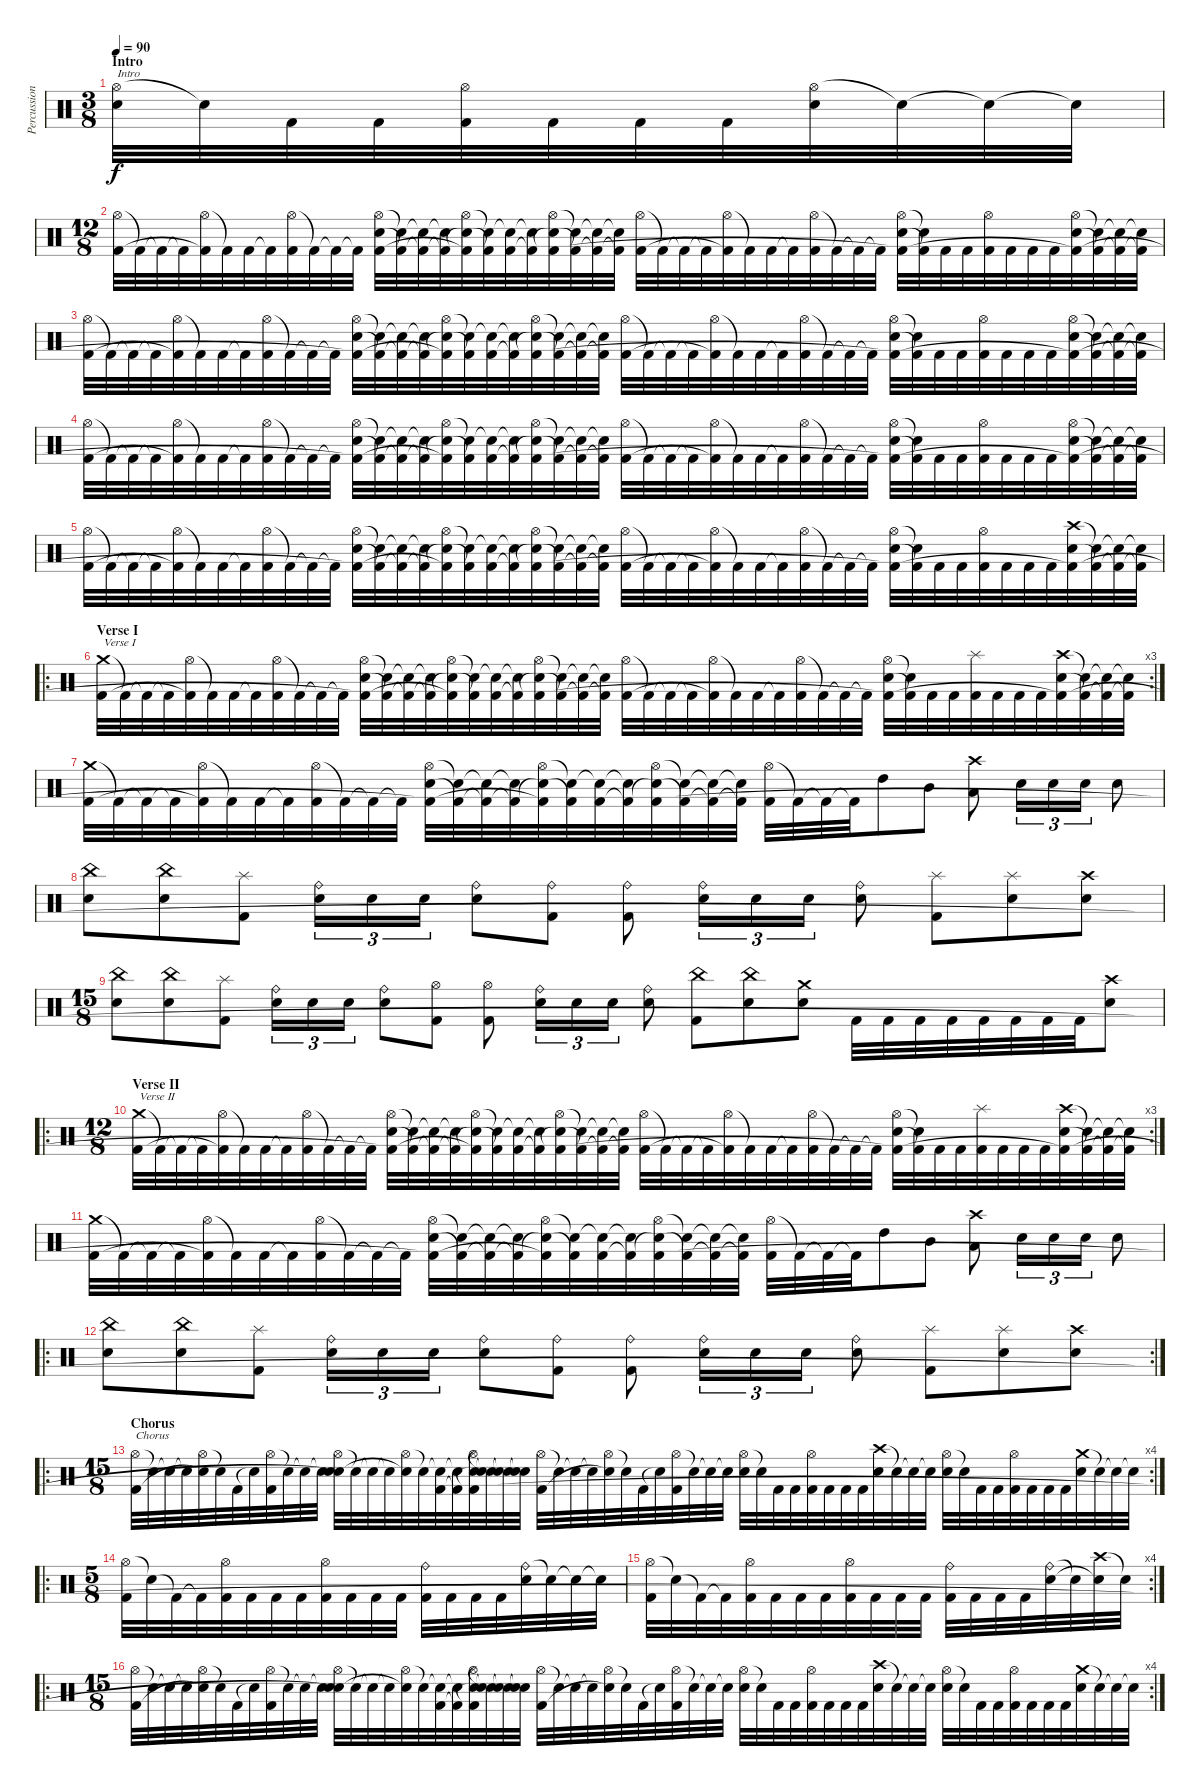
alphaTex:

\track ("Percussion [Patrick Robert]" "Percussion") {instrument percussion}
\staff {score}
\articulation defaults
\ts (3 8)
\section ("" "Intro")
\tempo 90
\clef neutral
\ks c
("Hi-Hat (open)" "Electric Snare (hit)").32{txt "Intro" dy f} "Snare (hit)"{t}.32 "Kick (hit) 2".32 "Kick (hit) 2".32 ("Hi-Hat (open)" "Kick (hit) 2").32 "Kick (hit) 2".32 "Kick (hit) 2".32 "Kick (hit) 2".32 ("Hi-Hat (open)" "Electric Snare (hit)").32 "Snare (hit)"{t}.32 "Snare (hit)"{t}.32 "Snare (hit)"{t}.32 |
\ts (12 8)
("Hi-Hat (open)" "Kick (hit) 2").32 "Kick (hit) 2"{t}.32 "Kick (hit) 2"{t}.32 "Kick (hit) 2"{t}.32 ("Hi-Hat (open)" "Kick (hit) 2"{t}).32 "Kick (hit) 2"{t}.32 "Kick (hit) 2".32 "Kick (hit) 2"{t}.32 ("Hi-Hat (open)" "Kick (hit) 2").32 "Kick (hit) 2"{t}.32 "Kick (hit) 2"{t}.32 "Kick (hit) 2"{t}.32 ("Hi-Hat (open)" "Electric Snare (hit)" "Kick (hit) 2").32 ("Snare (hit)"{t} "Kick (hit) 2"{t}).32 ("Snare (hit)"{t} "Kick (hit) 2"{t}).32 ("Snare (hit)"{t} "Kick (hit) 2"{t}).32 ("Hi-Hat (open)" "Snare (hit)"{t} "Kick (hit) 2"{t}).32 ("Snare (hit)"{t} "Kick (hit) 2"{t}).32 ("Snare (hit)"{t} "Kick (hit) 2").32 ("Snare (hit)"{t} "Kick (hit) 2"{t}).32 ("Hi-Hat (open)" "Snare (hit)"{t} "Kick (hit) 2").32 ("Snare (hit)"{t} "Kick (hit) 2"{t}).32 ("Snare (hit)"{t} "Kick (hit) 2"{t}).32 ("Snare (hit)"{t} "Kick (hit) 2"{t}).32 ("Hi-Hat (open)" "Kick (hit) 2").32 "Kick (hit) 2"{t}.32 "Kick (hit) 2"{t}.32 "Kick (hit) 2"{t}.32 ("Hi-Hat (open)" "Kick (hit) 2"{t}).32 "Kick (hit) 2"{t}.32 "Kick (hit) 2".32 "Kick (hit) 2"{t}.32 ("Hi-Hat (open)" "Kick (hit) 2").32 "Kick (hit) 2"{t}.32 "Kick (hit) 2"{t}.32 "Kick (hit) 2"{t}.32 ("Hi-Hat (open)" "Electric Snare (hit)" "Kick (hit) 2"{t}).32 ("Electric Snare (hit)"{t} "Kick (hit) 2"{t}).32 "Kick (hit) 2".32 "Kick (hit) 2".32 ("Hi-Hat (open)" "Kick (hit) 2").32 "Kick (hit) 2".32 "Kick (hit) 2".32 "Kick (hit) 2".32 ("Hi-Hat (open)" "Electric Snare (hit)" "Kick (hit) 2"{t}).32 ("Snare (hit)"{t} "Kick (hit) 2"{t}).32 ("Snare (hit)"{t} "Kick (hit) 2"{t}).32 ("Snare (hit)"{t} "Kick (hit) 2"{t}).32 |
("Hi-Hat (open)" "Kick (hit) 2").32 "Kick (hit) 2"{t}.32 "Kick (hit) 2"{t}.32 "Kick (hit) 2"{t}.32 ("Hi-Hat (open)" "Kick (hit) 2"{t}).32 "Kick (hit) 2"{t}.32 "Kick (hit) 2".32 "Kick (hit) 2"{t}.32 ("Hi-Hat (open)" "Kick (hit) 2").32 "Kick (hit) 2"{t}.32 "Kick (hit) 2"{t}.32 "Kick (hit) 2"{t}.32 ("Hi-Hat (open)" "Electric Snare (hit)" "Kick (hit) 2"{t}).32 ("Snare (hit)"{t} "Kick (hit) 2"{t}).32 ("Snare (hit)"{t} "Kick (hit) 2"{t}).32 ("Snare (hit)"{t} "Kick (hit) 2"{t}).32 ("Hi-Hat (open)" "Snare (hit)"{t} "Kick (hit) 2"{t}).32 ("Snare (hit)"{t} "Kick (hit) 2"{t}).32 ("Snare (hit)"{t} "Kick (hit) 2").32 ("Snare (hit)"{t} "Kick (hit) 2"{t}).32 ("Hi-Hat (open)" "Snare (hit)"{t} "Kick (hit) 2").32 ("Snare (hit)"{t} "Kick (hit) 2"{t}).32 ("Snare (hit)"{t} "Kick (hit) 2"{t}).32 ("Snare (hit)"{t} "Kick (hit) 2"{t}).32 ("Hi-Hat (open)" "Kick (hit) 2").32 "Kick (hit) 2"{t}.32 "Kick (hit) 2"{t}.32 "Kick (hit) 2"{t}.32 ("Hi-Hat (open)" "Kick (hit) 2"{t}).32 "Kick (hit) 2"{t}.32 "Kick (hit) 2".32 "Kick (hit) 2"{t}.32 ("Hi-Hat (open)" "Kick (hit) 2").32 "Kick (hit) 2"{t}.32 "Kick (hit) 2"{t}.32 "Kick (hit) 2"{t}.32 ("Hi-Hat (open)" "Electric Snare (hit)" "Kick (hit) 2"{t}).32 ("Electric Snare (hit)"{t} "Kick (hit) 2"{t}).32 "Kick (hit) 2".32 "Kick (hit) 2".32 ("Hi-Hat (open)" "Kick (hit) 2").32 "Kick (hit) 2".32 "Kick (hit) 2".32 "Kick (hit) 2".32 ("Hi-Hat (open)" "Electric Snare (hit)" "Kick (hit) 2"{t}).32 ("Snare (hit)"{t} "Kick (hit) 2"{t}).32 ("Snare (hit)"{t} "Kick (hit) 2"{t}).32 ("Snare (hit)"{t} "Kick (hit) 2"{t}).32 |
("Hi-Hat (open)" "Kick (hit) 2").32 "Kick (hit) 2"{t}.32 "Kick (hit) 2"{t}.32 "Kick (hit) 2"{t}.32 ("Hi-Hat (open)" "Kick (hit) 2"{t}).32 "Kick (hit) 2"{t}.32 "Kick (hit) 2".32 "Kick (hit) 2"{t}.32 ("Hi-Hat (open)" "Kick (hit) 2").32 "Kick (hit) 2"{t}.32 "Kick (hit) 2"{t}.32 "Kick (hit) 2"{t}.32 ("Hi-Hat (open)" "Electric Snare (hit)" "Kick (hit) 2"{t}).32 ("Snare (hit)"{t} "Kick (hit) 2"{t}).32 ("Snare (hit)"{t} "Kick (hit) 2"{t}).32 ("Snare (hit)"{t} "Kick (hit) 2"{t}).32 ("Hi-Hat (open)" "Snare (hit)"{t} "Kick (hit) 2"{t}).32 ("Snare (hit)"{t} "Kick (hit) 2"{t}).32 ("Snare (hit)"{t} "Kick (hit) 2").32 ("Snare (hit)"{t} "Kick (hit) 2"{t}).32 ("Hi-Hat (open)" "Snare (hit)"{t} "Kick (hit) 2").32 ("Snare (hit)"{t} "Kick (hit) 2"{t}).32 ("Snare (hit)"{t} "Kick (hit) 2"{t}).32 ("Snare (hit)"{t} "Kick (hit) 2"{t}).32 ("Hi-Hat (open)" "Kick (hit) 2").32 "Kick (hit) 2"{t}.32 "Kick (hit) 2"{t}.32 "Kick (hit) 2"{t}.32 ("Hi-Hat (open)" "Kick (hit) 2"{t}).32 "Kick (hit) 2"{t}.32 "Kick (hit) 2".32 "Kick (hit) 2"{t}.32 ("Hi-Hat (open)" "Kick (hit) 2").32 "Kick (hit) 2"{t}.32 "Kick (hit) 2"{t}.32 "Kick (hit) 2"{t}.32 ("Hi-Hat (open)" "Electric Snare (hit)" "Kick (hit) 2"{t}).32 ("Electric Snare (hit)"{t} "Kick (hit) 2"{t}).32 "Kick (hit) 2".32 "Kick (hit) 2".32 ("Hi-Hat (open)" "Kick (hit) 2").32 "Kick (hit) 2".32 "Kick (hit) 2".32 "Kick (hit) 2".32 ("Hi-Hat (open)" "Electric Snare (hit)" "Kick (hit) 2"{t}).32 ("Snare (hit)"{t} "Kick (hit) 2"{t}).32 ("Snare (hit)"{t} "Kick (hit) 2"{t}).32 ("Snare (hit)"{t} "Kick (hit) 2"{t}).32 |
("Hi-Hat (open)" "Kick (hit) 2").32 "Kick (hit) 2"{t}.32 "Kick (hit) 2"{t}.32 "Kick (hit) 2"{t}.32 ("Hi-Hat (open)" "Kick (hit) 2"{t}).32 "Kick (hit) 2"{t}.32 "Kick (hit) 2".32 "Kick (hit) 2"{t}.32 ("Hi-Hat (open)" "Kick (hit) 2").32 "Kick (hit) 2"{t}.32 "Kick (hit) 2"{t}.32 "Kick (hit) 2"{t}.32 ("Hi-Hat (open)" "Electric Snare (hit)" "Kick (hit) 2"{t}).32 ("Snare (hit)"{t} "Kick (hit) 2"{t}).32 ("Snare (hit)"{t} "Kick (hit) 2"{t}).32 ("Snare (hit)"{t} "Kick (hit) 2"{t}).32 ("Hi-Hat (open)" "Snare (hit)"{t} "Kick (hit) 2"{t}).32 ("Snare (hit)"{t} "Kick (hit) 2"{t}).32 ("Snare (hit)"{t} "Kick (hit) 2").32 ("Snare (hit)"{t} "Kick (hit) 2"{t}).32 ("Hi-Hat (open)" "Snare (hit)"{t} "Kick (hit) 2").32 ("Snare (hit)"{t} "Kick (hit) 2"{t}).32 ("Snare (hit)"{t} "Kick (hit) 2"{t}).32 ("Snare (hit)"{t} "Kick (hit) 2"{t}).32 ("Hi-Hat (open)" "Kick (hit) 2").32 "Kick (hit) 2"{t}.32 "Kick (hit) 2"{t}.32 "Kick (hit) 2"{t}.32 ("Hi-Hat (open)" "Kick (hit) 2"{t}).32 "Kick (hit) 2"{t}.32 "Kick (hit) 2".32 "Kick (hit) 2"{t}.32 ("Hi-Hat (open)" "Kick (hit) 2").32 "Kick (hit) 2"{t}.32 "Kick (hit) 2"{t}.32 "Kick (hit) 2"{t}.32 ("Hi-Hat (open)" "Electric Snare (hit)" "Kick (hit) 2"{t}).32 ("Electric Snare (hit)"{t} "Kick (hit) 2"{t}).32 "Kick (hit) 2".32 "Kick (hit) 2".32 ("Hi-Hat (open)" "Kick (hit) 2").32 "Kick (hit) 2".32 "Kick (hit) 2".32 "Kick (hit) 2".32 ("Crash high (hit)" "Electric Snare (hit)" "Kick (hit) 2"{t}).32 ("Snare (hit)"{t} "Kick (hit) 2"{t}).32 ("Snare (hit)"{t} "Kick (hit) 2"{t}).32 ("Snare (hit)"{t} "Kick (hit) 2"{t}).32 |
\ro
\rc 3
\section ("" "Verse I")
("Crash medium (hit)" "Kick (hit) 2").32{txt "Verse I"} "Kick (hit) 2"{t}.32 "Kick (hit) 2"{t}.32 "Kick (hit) 2"{t}.32 ("Hi-Hat (open)" "Kick (hit) 2"{t}).32 "Kick (hit) 2"{t}.32 "Kick (hit) 2".32 "Kick (hit) 2"{t}.32 ("Hi-Hat (open)" "Kick (hit) 2").32 "Kick (hit) 2"{t}.32 "Kick (hit) 2"{t}.32 "Kick (hit) 2"{t}.32 ("Hi-Hat (open)" "Electric Snare (hit)" "Kick (hit) 2"{t}).32 ("Snare (hit)"{t} "Kick (hit) 2"{t}).32 ("Snare (hit)"{t} "Kick (hit) 2"{t}).32 ("Snare (hit)"{t} "Kick (hit) 2"{t}).32 ("Hi-Hat (open)" "Snare (hit)"{t} "Kick (hit) 2"{t}).32 ("Snare (hit)"{t} "Kick (hit) 2"{t}).32 ("Snare (hit)"{t} "Kick (hit) 2").32 ("Snare (hit)"{t} "Kick (hit) 2"{t}).32 ("Hi-Hat (open)" "Snare (hit)"{t} "Kick (hit) 2").32 ("Snare (hit)"{t} "Kick (hit) 2"{t}).32 ("Snare (hit)"{t} "Kick (hit) 2"{t}).32 ("Snare (hit)"{t} "Kick (hit) 2"{t}).32 ("Hi-Hat (open)" "Kick (hit) 2").32 "Kick (hit) 2"{t}.32 "Kick (hit) 2"{t}.32 "Kick (hit) 2"{t}.32 ("Hi-Hat (open)" "Kick (hit) 2"{t}).32 "Kick (hit) 2"{t}.32 "Kick (hit) 2".32 "Kick (hit) 2"{t}.32 ("Hi-Hat (open)" "Kick (hit) 2").32 "Kick (hit) 2"{t}.32 "Kick (hit) 2"{t}.32 "Kick (hit) 2"{t}.32 ("Hi-Hat (open)" "Electric Snare (hit)" "Kick (hit) 2"{t}).32 ("Electric Snare (hit)"{t} "Kick (hit) 2"{t}).32 "Kick (hit) 2".32 "Kick (hit) 2".32 ("Splash (hit)" "Kick (hit) 2").32 "Kick (hit) 2".32 "Kick (hit) 2".32 "Kick (hit) 2".32 ("Crash high (hit)" "Electric Snare (hit)" "Kick (hit) 2"{t}).32 ("Snare (hit)"{t} "Kick (hit) 2"{t}).32 ("Snare (hit)"{t} "Kick (hit) 2"{t}).32 ("Snare (hit)"{t} "Kick (hit) 2"{t}).32 |
("Crash medium (hit)" "Kick (hit) 2").32 "Kick (hit) 2"{t}.32 "Kick (hit) 2"{t}.32 "Kick (hit) 2"{t}.32 ("Hi-Hat (open)" "Kick (hit) 2"{t}).32 "Kick (hit) 2"{t}.32 "Kick (hit) 2".32 "Kick (hit) 2"{t}.32 ("Hi-Hat (open)" "Kick (hit) 2").32 "Kick (hit) 2"{t}.32 "Kick (hit) 2"{t}.32 "Kick (hit) 2"{t}.32 ("Hi-Hat (open)" "Electric Snare (hit)" "Kick (hit) 2"{t}).32 ("Snare (hit)"{t} "Kick (hit) 2"{t}).32 ("Snare (hit)"{t} "Kick (hit) 2"{t}).32 ("Snare (hit)"{t} "Kick (hit) 2"{t}).32 ("Hi-Hat (open)" "Snare (hit)"{t} "Kick (hit) 2"{t}).32 ("Snare (hit)"{t} "Kick (hit) 2"{t}).32 ("Snare (hit)"{t} "Kick (hit) 2").32 ("Snare (hit)"{t} "Kick (hit) 2"{t}).32 ("Hi-Hat (open)" "Snare (hit)"{t} "Kick (hit) 2").32 ("Snare (hit)"{t} "Kick (hit) 2"{t}).32 ("Snare (hit)"{t} "Kick (hit) 2"{t}).32 ("Snare (hit)"{t} "Kick (hit) 2"{t}).32 ("Hi-Hat (open)" "Kick (hit) 2").32 "Kick (hit) 2"{t}.32 "Kick (hit) 2"{t}.32 "Kick (hit) 2"{t}.32 "High Tom (hit)".8 "Mid Tom (hit)".8 ("Crash high (hit)" "Low Tom (hit)").8 "Electric Snare (hit)".16{tu (3 2)} "Electric Snare (hit)".16{tu (3 2)} "Electric Snare (hit)".16{tu (3 2)} "Electric Snare (hit)".8 |
("China (hit)" "Electric Snare (hit)").8 ("China (hit)" "Electric Snare (hit)").8 ("Splash (hit)" "Kick (hit) 2").8 ("Ride (bell)" "Electric Snare (hit)").16{tu (3 2)} "Electric Snare (hit)".16{tu (3 2)} "Electric Snare (hit)".16{tu (3 2)} ("Ride (bell)" "Electric Snare (hit)").8 ("Ride (bell)" "Kick (hit) 2").8 ("Ride (bell)" "Kick (hit) 2").8 ("Ride (bell)" "Electric Snare (hit)").16{tu (3 2)} "Electric Snare (hit)".16{tu (3 2)} "Electric Snare (hit)".16{tu (3 2)} ("Ride (bell)" "Electric Snare (hit)").8 ("Splash (hit)" "Kick (hit) 2").8 ("Splash (hit)" "Electric Snare (hit)").8 ("Crash high (hit)" "Electric Snare (hit)").8 |
\ts (15 8)
("China (hit)" "Electric Snare (hit)").8 ("China (hit)" "Electric Snare (hit)").8 ("Splash (hit)" "Kick (hit) 2").8 ("Ride (bell)" "Electric Snare (hit)").16{tu (3 2)} "Electric Snare (hit)".16{tu (3 2)} "Electric Snare (hit)".16{tu (3 2)} ("Ride (bell)" "Electric Snare (hit)").8 ("Hi-Hat (open)" "Kick (hit) 2").8 ("Hi-Hat (open)" "Kick (hit) 2").8 ("Ride (bell)" "Electric Snare (hit)").16{tu (3 2)} "Electric Snare (hit)".16{tu (3 2)} "Electric Snare (hit)".16{tu (3 2)} ("Ride (bell)" "Electric Snare (hit)").8 ("China (hit)" "Kick (hit) 2").8 ("China (hit)" "Electric Snare (hit)").8 ("Crash medium (hit)" "Electric Snare (hit)").8 "Kick (hit) 2".32 "Kick (hit) 2".32 "Kick (hit) 2".32 "Kick (hit) 2".32 "Kick (hit) 2".32 "Kick (hit) 2".32 "Kick (hit) 2".32 "Kick (hit) 2".32 ("Crash high (hit)" "Electric Snare (hit)").8 |
\ro
\rc 3
\ts (12 8)
\section ("" "Verse II")
("Crash medium (hit)" "Kick (hit) 2").32{txt "Verse II"} "Kick (hit) 2"{t}.32 "Kick (hit) 2"{t}.32 "Kick (hit) 2"{t}.32 ("Hi-Hat (open)" "Kick (hit) 2"{t}).32 "Kick (hit) 2"{t}.32 "Kick (hit) 2".32 "Kick (hit) 2"{t}.32 ("Hi-Hat (open)" "Kick (hit) 2").32 "Kick (hit) 2"{t}.32 "Kick (hit) 2"{t}.32 "Kick (hit) 2"{t}.32 ("Hi-Hat (open)" "Electric Snare (hit)" "Kick (hit) 2"{t}).32 ("Snare (hit)"{t} "Kick (hit) 2"{t}).32 ("Snare (hit)"{t} "Kick (hit) 2"{t}).32 ("Snare (hit)"{t} "Kick (hit) 2"{t}).32 ("Hi-Hat (open)" "Snare (hit)"{t} "Kick (hit) 2"{t}).32 ("Snare (hit)"{t} "Kick (hit) 2"{t}).32 ("Snare (hit)"{t} "Kick (hit) 2").32 ("Snare (hit)"{t} "Kick (hit) 2"{t}).32 ("Hi-Hat (open)" "Snare (hit)"{t} "Kick (hit) 2").32 ("Snare (hit)"{t} "Kick (hit) 2"{t}).32 ("Snare (hit)"{t} "Kick (hit) 2"{t}).32 ("Snare (hit)"{t} "Kick (hit) 2"{t}).32 ("Hi-Hat (open)" "Kick (hit) 2").32 "Kick (hit) 2"{t}.32 "Kick (hit) 2"{t}.32 "Kick (hit) 2"{t}.32 ("Hi-Hat (open)" "Kick (hit) 2"{t}).32 "Kick (hit) 2"{t}.32 "Kick (hit) 2".32 "Kick (hit) 2"{t}.32 ("Hi-Hat (open)" "Kick (hit) 2").32 "Kick (hit) 2"{t}.32 "Kick (hit) 2"{t}.32 "Kick (hit) 2"{t}.32 ("Hi-Hat (open)" "Electric Snare (hit)" "Kick (hit) 2"{t}).32 ("Electric Snare (hit)"{t} "Kick (hit) 2"{t}).32 "Kick (hit) 2".32 "Kick (hit) 2".32 ("Splash (hit)" "Kick (hit) 2").32 "Kick (hit) 2".32 "Kick (hit) 2".32 "Kick (hit) 2".32 ("Crash high (hit)" "Electric Snare (hit)" "Kick (hit) 2"{t}).32 ("Snare (hit)"{t} "Kick (hit) 2"{t}).32 ("Snare (hit)"{t} "Kick (hit) 2"{t}).32 ("Snare (hit)"{t} "Kick (hit) 2"{t}).32 |
("Crash medium (hit)" "Kick (hit) 2").32 "Kick (hit) 2"{t}.32 "Kick (hit) 2"{t}.32 "Kick (hit) 2"{t}.32 ("Hi-Hat (open)" "Kick (hit) 2"{t}).32 "Kick (hit) 2"{t}.32 "Kick (hit) 2".32 "Kick (hit) 2"{t}.32 ("Hi-Hat (open)" "Kick (hit) 2").32 "Kick (hit) 2"{t}.32 "Kick (hit) 2"{t}.32 "Kick (hit) 2"{t}.32 ("Hi-Hat (open)" "Electric Snare (hit)" "Kick (hit) 2"{t}).32 ("Snare (hit)"{t} "Kick (hit) 2"{t}).32 ("Snare (hit)"{t} "Kick (hit) 2"{t}).32 ("Snare (hit)"{t} "Kick (hit) 2"{t}).32 ("Hi-Hat (open)" "Snare (hit)"{t} "Kick (hit) 2"{t}).32 ("Snare (hit)"{t} "Kick (hit) 2"{t}).32 ("Snare (hit)"{t} "Kick (hit) 2").32 ("Snare (hit)"{t} "Kick (hit) 2"{t}).32 ("Hi-Hat (open)" "Snare (hit)"{t} "Kick (hit) 2").32 ("Snare (hit)"{t} "Kick (hit) 2"{t}).32 ("Snare (hit)"{t} "Kick (hit) 2"{t}).32 ("Snare (hit)"{t} "Kick (hit) 2"{t}).32 ("Hi-Hat (open)" "Kick (hit) 2").32 "Kick (hit) 2"{t}.32 "Kick (hit) 2"{t}.32 "Kick (hit) 2"{t}.32 "High Tom (hit)".8 "Mid Tom (hit)".8 ("Crash high (hit)" "Low Tom (hit)").8 "Electric Snare (hit)".16{tu (3 2)} "Electric Snare (hit)".16{tu (3 2)} "Electric Snare (hit)".16{tu (3 2)} "Electric Snare (hit)".8 |
\ro
\rc 2
("China (hit)" "Electric Snare (hit)").8 ("China (hit)" "Electric Snare (hit)").8 ("Splash (hit)" "Kick (hit) 2").8 ("Ride (bell)" "Electric Snare (hit)").16{tu (3 2)} "Electric Snare (hit)".16{tu (3 2)} "Electric Snare (hit)".16{tu (3 2)} ("Ride (bell)" "Electric Snare (hit)").8 ("Ride (bell)" "Kick (hit) 2").8 ("Ride (bell)" "Kick (hit) 2").8 ("Ride (bell)" "Electric Snare (hit)").16{tu (3 2)} "Electric Snare (hit)".16{tu (3 2)} "Electric Snare (hit)".16{tu (3 2)} ("Ride (bell)" "Electric Snare (hit)").8 ("Splash (hit)" "Kick (hit) 2").8 ("Splash (hit)" "Electric Snare (hit)").8 ("Crash high (hit)" "Electric Snare (hit)").8 |
\ro
\rc 4
\ts (15 8)
\section ("" "Chorus")
("Hi-Hat (open)" "Kick (hit) 2").32{txt "Chorus"} "Snare (hit)"{t}.32 "Snare (hit)"{t}.32 "Snare (hit)"{t}.32 ("Hi-Hat (open)" "Snare (hit)"{t}).32 "Snare (hit)"{t}.32 "Kick (hit) 2".32 "Snare (hit)"{t}.32 ("Hi-Hat (open)" "Kick (hit) 2").32 "Snare (hit)"{t}.32 "Snare (hit)"{t}.32 "Snare (hit)"{t}.32 ("Hi-Hat (open)" "Electric Snare (hit)" "Snare (hit)"{t}).32 "Snare (hit)"{t}.32 "Snare (hit)"{t}.32 "Snare (hit)"{t}.32 ("Hi-Hat (open)" "Snare (hit)"{t}).32 "Snare (hit)"{t}.32 ("Snare (hit)"{t} "Kick (hit) 2").32 ("Snare (hit)"{t} "Kick (hit) 2"{t}).32 ("Hi-Hat (open)" "Snare (hit)"{t} "Kick (hit) 2").32 ("Snare (hit)"{t} "Snare (hit)"{t}).32 ("Snare (hit)"{t} "Snare (hit)"{t}).32 ("Snare (hit)"{t} "Snare (hit)"{t}).32 ("Hi-Hat (open)" "Kick (hit) 2").32 "Snare (hit)"{t}.32 "Snare (hit)"{t}.32 "Snare (hit)"{t}.32 ("Hi-Hat (open)" "Snare (hit)"{t}).32 "Snare (hit)"{t}.32 "Kick (hit) 2".32 "Snare (hit)"{t}.32 ("Hi-Hat (open)" "Kick (hit) 2").32 "Snare (hit)"{t}.32 "Snare (hit)"{t}.32 "Snare (hit)"{t}.32 ("Hi-Hat (open)" "Electric Snare (hit)").32 "Snare (hit)"{t}.32 "Kick (hit) 2".32 "Kick (hit) 2".32 ("Hi-Hat (open)" "Kick (hit) 2").32 "Kick (hit) 2".32 "Kick (hit) 2".32 "Kick (hit) 2".32 ("Crash high (hit)" "Electric Snare (hit)").32 "Snare (hit)"{t}.32 "Snare (hit)"{t}.32 "Snare (hit)"{t}.32 ("Hi-Hat (open)" "Electric Snare (hit)").32 "Snare (hit)"{t}.32 "Kick (hit) 2".32 "Kick (hit) 2".32 ("Hi-Hat (open)" "Kick (hit) 2").32 "Kick (hit) 2".32 "Kick (hit) 2".32 "Kick (hit) 2".32 ("Crash medium (hit)" "Electric Snare (hit)").32 "Snare (hit)"{t}.32 "Snare (hit)"{t}.32 "Snare (hit)"{t}.32 |
\ro
\ts (5 8)
("Hi-Hat (open)" "Kick (hit) 2").32 "Snare (hit)"{t}.32 "Kick (hit) 2"{t}.32 "Kick (hit) 2"{t}.32 ("Hi-Hat (open)" "Kick (hit) 2").32 "Kick (hit) 2".32 "Kick (hit) 2".32 "Kick (hit) 2".32 ("Hi-Hat (open)" "Kick (hit) 2").32 "Kick (hit) 2".32 "Kick (hit) 2".32 "Kick (hit) 2".32 ("Ride (bell)" "Kick (hit) 2").32 "Kick (hit) 2".32 "Kick (hit) 2".32 "Kick (hit) 2".32 ("Ride (bell)" "Electric Snare (hit)").32 "Snare (hit)"{t}.32 "Snare (hit)"{t}.32 "Snare (hit)"{t}.32 |
\rc 4
("Hi-Hat (open)" "Kick (hit) 2").32 "Snare (hit)"{t}.32 "Kick (hit) 2"{t}.32 "Kick (hit) 2"{t}.32 ("Hi-Hat (open)" "Kick (hit) 2").32 "Kick (hit) 2".32 "Kick (hit) 2".32 "Kick (hit) 2".32 ("Hi-Hat (open)" "Kick (hit) 2").32 "Kick (hit) 2".32 "Kick (hit) 2".32 "Kick (hit) 2".32 ("Ride (bell)" "Kick (hit) 2").32 "Kick (hit) 2".32 "Kick (hit) 2".32 "Kick (hit) 2".32 ("Ride (bell)" "Electric Snare (hit)").32 "Snare (hit)"{t}.32 ("Crash high (hit)" "Snare (hit)"{t}).32 "Snare (hit)"{t}.32 |
\ro
\rc 4
\ts (15 8)
("Hi-Hat (open)" "Kick (hit) 2").32 "Snare (hit)"{t}.32 "Snare (hit)"{t}.32 "Snare (hit)"{t}.32 ("Hi-Hat (open)" "Snare (hit)"{t}).32 "Snare (hit)"{t}.32 "Kick (hit) 2".32 "Snare (hit)"{t}.32 ("Hi-Hat (open)" "Kick (hit) 2").32 "Snare (hit)"{t}.32 "Snare (hit)"{t}.32 "Snare (hit)"{t}.32 ("Hi-Hat (open)" "Electric Snare (hit)" "Snare (hit)"{t}).32 "Snare (hit)"{t}.32 "Snare (hit)"{t}.32 "Snare (hit)"{t}.32 ("Hi-Hat (open)" "Snare (hit)"{t}).32 "Snare (hit)"{t}.32 ("Snare (hit)"{t} "Kick (hit) 2").32 ("Snare (hit)"{t} "Kick (hit) 2"{t}).32 ("Hi-Hat (open)" "Snare (hit)"{t} "Kick (hit) 2").32 ("Snare (hit)"{t} "Snare (hit)"{t}).32 ("Snare (hit)"{t} "Snare (hit)"{t}).32 ("Snare (hit)"{t} "Snare (hit)"{t}).32 ("Hi-Hat (open)" "Kick (hit) 2").32 "Snare (hit)"{t}.32 "Snare (hit)"{t}.32 "Snare (hit)"{t}.32 ("Hi-Hat (open)" "Snare (hit)"{t}).32 "Snare (hit)"{t}.32 "Kick (hit) 2".32 "Snare (hit)"{t}.32 ("Hi-Hat (open)" "Kick (hit) 2").32 "Snare (hit)"{t}.32 "Snare (hit)"{t}.32 "Snare (hit)"{t}.32 ("Hi-Hat (open)" "Electric Snare (hit)").32 "Snare (hit)"{t}.32 "Kick (hit) 2".32 "Kick (hit) 2".32 ("Hi-Hat (open)" "Kick (hit) 2").32 "Kick (hit) 2".32 "Kick (hit) 2".32 "Kick (hit) 2".32 ("Crash high (hit)" "Electric Snare (hit)").32 "Snare (hit)"{t}.32 "Snare (hit)"{t}.32 "Snare (hit)"{t}.32 ("Hi-Hat (open)" "Electric Snare (hit)").32 "Snare (hit)"{t}.32 "Kick (hit) 2".32 "Kick (hit) 2".32 ("Hi-Hat (open)" "Kick (hit) 2").32 "Kick (hit) 2".32 "Kick (hit) 2".32 "Kick (hit) 2".32 ("Crash medium (hit)" "Electric Snare (hit)").32 "Snare (hit)"{t}.32 "Snare (hit)"{t}.32 "Snare (hit)"{t}.32
